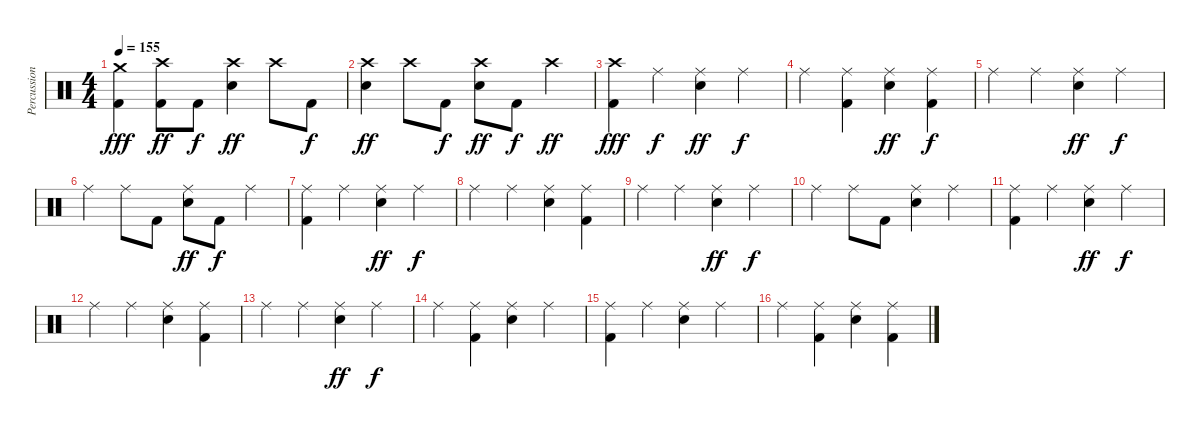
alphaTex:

\track ("Percussions" "Percussion") {instrument percussion}
\staff {score}
\articulation defaults
\ts (4 4)
\tempo 155
\clef neutral
\ks c
("Crash medium (hit)" "Kick (hit) 2").4{dy fff} ("Crash high (hit)" "Kick (hit) 2").8{dy ff} "Kick (hit) 2".8{dy f} ("Crash high (hit)" "Electric Snare (hit)").4{dy ff} "Crash high (hit)".8 "Kick (hit) 2".8{dy f} |
("Crash high (hit)" "Electric Snare (hit)").4{dy ff} "Crash high (hit)".8 "Kick (hit) 2".8{dy f} ("Crash high (hit)" "Electric Snare (hit)").8{dy ff} "Kick (hit) 2".8{dy f} "Crash high (hit)".4{dy ff} |
("Crash high (hit)" "Kick (hit) 2").4{dy fff} "Ride (middle)".4{dy f} ("Ride (middle)" "Electric Snare (hit)").4{dy ff} "Ride (middle)".4{dy f} |
"Ride (middle)".4 ("Ride (middle)" "Kick (hit) 2").4 ("Ride (middle)" "Electric Snare (hit)").4{dy ff} ("Ride (middle)" "Kick (hit) 2").4{dy f} |
"Ride (middle)".4 "Ride (middle)".4 ("Ride (middle)" "Electric Snare (hit)").4{dy ff} "Ride (middle)".4{dy f} |
"Ride (middle)".4 "Ride (middle)".8 "Kick (hit) 2".8 ("Ride (middle)" "Electric Snare (hit)").8{dy ff} "Kick (hit) 2".8{dy f} "Ride (middle)".4 |
("Ride (middle)" "Kick (hit) 2").4 "Ride (middle)".4 ("Ride (middle)" "Electric Snare (hit)").4{dy ff} "Ride (middle)".4{dy f} |
"Ride (middle)".4 "Ride (middle)".4 ("Ride (middle)" "Electric Snare (hit)").4 ("Ride (middle)" "Kick (hit) 2").4 |
"Ride (middle)".4 "Ride (middle)".4 ("Ride (middle)" "Electric Snare (hit)").4{dy ff} "Ride (middle)".4{dy f} |
"Ride (middle)".4 "Ride (middle)".8 "Kick (hit) 2".8 ("Ride (middle)" "Electric Snare (hit)").4 "Ride (middle)".4 |
("Ride (middle)" "Kick (hit) 2").4 "Ride (middle)".4 ("Ride (middle)" "Electric Snare (hit)").4{dy ff} "Ride (middle)".4{dy f} |
"Ride (middle)".4 "Ride (middle)".4 ("Ride (middle)" "Electric Snare (hit)").4 ("Ride (middle)" "Kick (hit) 2").4 |
"Ride (middle)".4 "Ride (middle)".4 ("Ride (middle)" "Electric Snare (hit)").4{dy ff} "Ride (middle)".4{dy f} |
"Ride (middle)".4 ("Ride (middle)" "Kick (hit) 2").4 ("Ride (middle)" "Electric Snare (hit)").4 "Ride (middle)".4 |
("Ride (middle)" "Kick (hit) 2").4 "Ride (middle)".4 ("Ride (middle)" "Electric Snare (hit)").4 "Ride (middle)".4 |
"Ride (middle)".4 ("Ride (middle)" "Kick (hit) 2").4 ("Ride (middle)" "Electric Snare (hit)").4 ("Ride (middle)" "Kick (hit) 2").4
